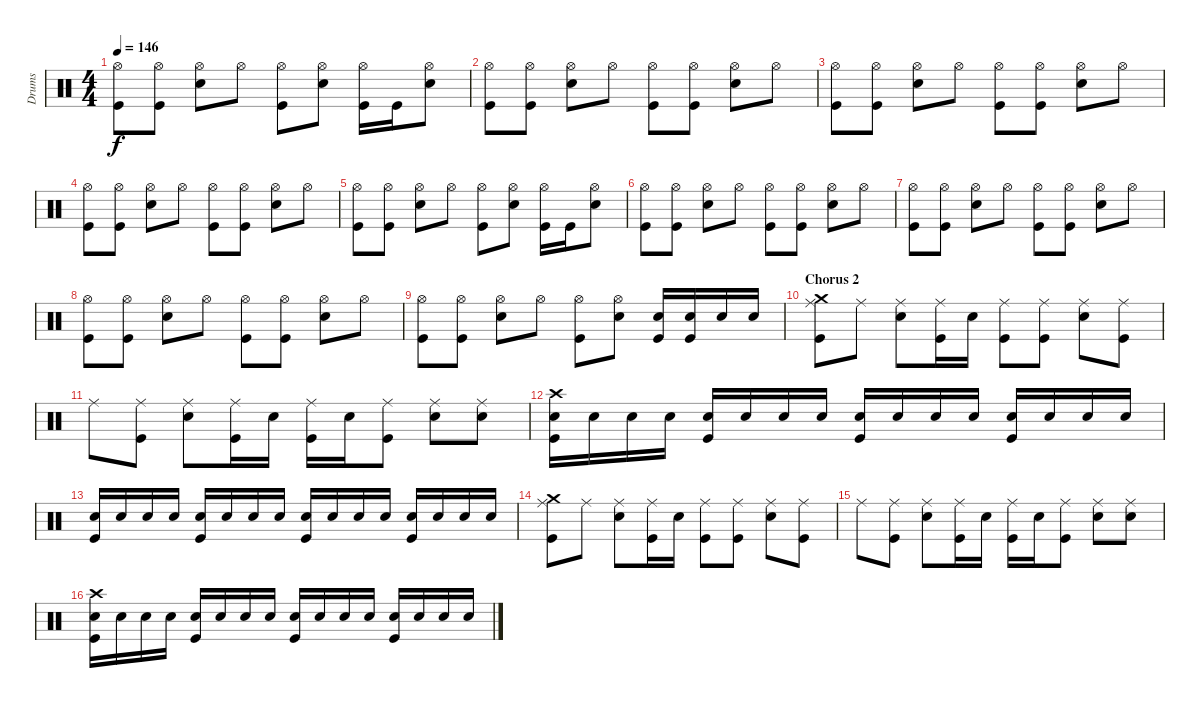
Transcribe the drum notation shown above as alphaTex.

\track ("Drums" "Drums") {instrument percussion}
\staff {score}
\articulation defaults
\ts (4 4)
\tempo 146
\clef neutral
\ks c
("Hi-Hat (open)" "Kick (hit)").8{dy f} ("Hi-Hat (open)" "Kick (hit)").8 ("Hi-Hat (open)" "Snare (hit) 2").8 "Hi-Hat (open)".8 ("Hi-Hat (open)" "Kick (hit)").8 ("Hi-Hat (open)" "Snare (hit) 2").8 ("Hi-Hat (open)" "Kick (hit)").16 "Kick (hit)".16 ("Hi-Hat (open)" "Snare (hit) 2").8 |
("Hi-Hat (open)" "Kick (hit)").8 ("Hi-Hat (open)" "Kick (hit)").8 ("Hi-Hat (open)" "Snare (hit) 2").8 "Hi-Hat (open)".8 ("Hi-Hat (open)" "Kick (hit)").8 ("Hi-Hat (open)" "Kick (hit)").8 ("Hi-Hat (open)" "Snare (hit) 2").8 "Hi-Hat (open)".8 |
("Hi-Hat (open)" "Kick (hit)").8 ("Hi-Hat (open)" "Kick (hit)").8 ("Hi-Hat (open)" "Snare (hit) 2").8 "Hi-Hat (open)".8 ("Hi-Hat (open)" "Kick (hit)").8 ("Hi-Hat (open)" "Kick (hit)").8 ("Hi-Hat (open)" "Snare (hit) 2").8 "Hi-Hat (open)".8 |
("Hi-Hat (open)" "Kick (hit)").8 ("Hi-Hat (open)" "Kick (hit)").8 ("Hi-Hat (open)" "Snare (hit) 2").8 "Hi-Hat (open)".8 ("Hi-Hat (open)" "Kick (hit)").8 ("Hi-Hat (open)" "Kick (hit)").8 ("Hi-Hat (open)" "Snare (hit) 2").8 "Hi-Hat (open)".8 |
("Hi-Hat (open)" "Kick (hit)").8 ("Hi-Hat (open)" "Kick (hit)").8 ("Hi-Hat (open)" "Snare (hit) 2").8 "Hi-Hat (open)".8 ("Hi-Hat (open)" "Kick (hit)").8 ("Hi-Hat (open)" "Snare (hit) 2").8 ("Hi-Hat (open)" "Kick (hit)").16 "Kick (hit)".16 ("Hi-Hat (open)" "Snare (hit) 2").8 |
("Hi-Hat (open)" "Kick (hit)").8 ("Hi-Hat (open)" "Kick (hit)").8 ("Hi-Hat (open)" "Snare (hit) 2").8 "Hi-Hat (open)".8 ("Hi-Hat (open)" "Kick (hit)").8 ("Hi-Hat (open)" "Kick (hit)").8 ("Hi-Hat (open)" "Snare (hit) 2").8 "Hi-Hat (open)".8 |
("Hi-Hat (open)" "Kick (hit)").8 ("Hi-Hat (open)" "Kick (hit)").8 ("Hi-Hat (open)" "Snare (hit) 2").8 "Hi-Hat (open)".8 ("Hi-Hat (open)" "Kick (hit)").8 ("Hi-Hat (open)" "Kick (hit)").8 ("Hi-Hat (open)" "Snare (hit) 2").8 "Hi-Hat (open)".8 |
("Hi-Hat (open)" "Kick (hit)").8 ("Hi-Hat (open)" "Kick (hit)").8 ("Hi-Hat (open)" "Snare (hit) 2").8 "Hi-Hat (open)".8 ("Hi-Hat (open)" "Kick (hit)").8 ("Hi-Hat (open)" "Kick (hit)").8 ("Hi-Hat (open)" "Snare (hit) 2").8 "Hi-Hat (open)".8 |
("Hi-Hat (open)" "Kick (hit)").8 ("Hi-Hat (open)" "Kick (hit)").8 ("Hi-Hat (open)" "Snare (hit) 2").8 "Hi-Hat (open)".8 ("Hi-Hat (open)" "Kick (hit)").8 ("Hi-Hat (open)" "Snare (hit) 2").8 ("Snare (hit) 2" "Kick (hit)").16 ("Snare (hit) 2" "Kick (hit)").16 "Snare (hit) 2".16 "Snare (hit) 2".16 |
\section ("" "Chorus 2")
("Ride (middle)" "Crash medium (hit)" "Kick (hit)").8 "Ride (middle)".8 ("Ride (middle)" "Snare (hit) 2").8 ("Ride (middle)" "Kick (hit)").16 "Snare (hit) 2".16 ("Ride (middle)" "Kick (hit)").8 ("Ride (middle)" "Kick (hit)").8 ("Ride (middle)" "Snare (hit) 2").8 ("Ride (middle)" "Kick (hit)").8 |
"Ride (middle)".8 ("Ride (middle)" "Kick (hit)").8 ("Ride (middle)" "Snare (hit) 2").8 ("Ride (middle)" "Kick (hit)").16 "Snare (hit) 2".16 ("Ride (middle)" "Kick (hit)").16 "Snare (hit) 2".16 ("Ride (middle)" "Kick (hit)").8 ("Ride (middle)" "Snare (hit) 2").8 ("Ride (middle)" "Snare (hit) 2").8 |
("Crash high (hit)" "Snare (hit) 2" "Kick (hit)").16 "Snare (hit) 2".16 "Snare (hit) 2".16 "Snare (hit) 2".16 ("Snare (hit) 2" "Kick (hit)").16 "Snare (hit) 2".16 "Snare (hit) 2".16 "Snare (hit) 2".16 ("Snare (hit) 2" "Kick (hit)").16 "Snare (hit) 2".16 "Snare (hit) 2".16 "Snare (hit) 2".16 ("Snare (hit) 2" "Kick (hit)").16 "Snare (hit) 2".16 "Snare (hit) 2".16 "Snare (hit) 2".16 |
("Snare (hit) 2" "Kick (hit)").16 "Snare (hit) 2".16 "Snare (hit) 2".16 "Snare (hit) 2".16 ("Snare (hit) 2" "Kick (hit)").16 "Snare (hit) 2".16 "Snare (hit) 2".16 "Snare (hit) 2".16 ("Snare (hit) 2" "Kick (hit)").16 "Snare (hit) 2".16 "Snare (hit) 2".16 "Snare (hit) 2".16 ("Snare (hit) 2" "Kick (hit)").16 "Snare (hit) 2".16 "Snare (hit) 2".16 "Snare (hit) 2".16 |
("Ride (middle)" "Crash medium (hit)" "Kick (hit)").8 "Ride (middle)".8 ("Ride (middle)" "Snare (hit) 2").8 ("Ride (middle)" "Kick (hit)").16 "Snare (hit) 2".16 ("Ride (middle)" "Kick (hit)").8 ("Ride (middle)" "Kick (hit)").8 ("Ride (middle)" "Snare (hit) 2").8 ("Ride (middle)" "Kick (hit)").8 |
"Ride (middle)".8 ("Ride (middle)" "Kick (hit)").8 ("Ride (middle)" "Snare (hit) 2").8 ("Ride (middle)" "Kick (hit)").16 "Snare (hit) 2".16 ("Ride (middle)" "Kick (hit)").16 "Snare (hit) 2".16 ("Ride (middle)" "Kick (hit)").8 ("Ride (middle)" "Snare (hit) 2").8 ("Ride (middle)" "Snare (hit) 2").8 |
("Crash high (hit)" "Snare (hit) 2" "Kick (hit)").16 "Snare (hit) 2".16 "Snare (hit) 2".16 "Snare (hit) 2".16 ("Snare (hit) 2" "Kick (hit)").16 "Snare (hit) 2".16 "Snare (hit) 2".16 "Snare (hit) 2".16 ("Snare (hit) 2" "Kick (hit)").16 "Snare (hit) 2".16 "Snare (hit) 2".16 "Snare (hit) 2".16 ("Snare (hit) 2" "Kick (hit)").16 "Snare (hit) 2".16 "Snare (hit) 2".16 "Snare (hit) 2".16
